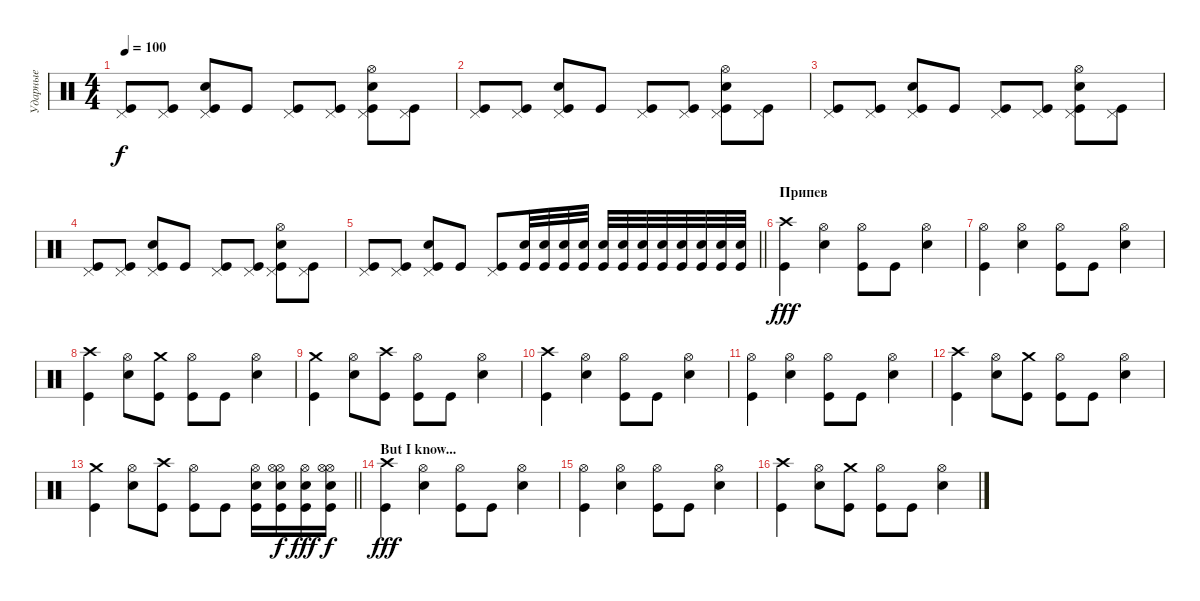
\track ("Ударные" "Ударные") {instrument percussion}
\staff {score}
\articulation defaults
\ts (4 4)
\tempo 100
\clef neutral
\ks c
("Kick (hit)" "Pedal Hi-Hat (hit)").8{dy f} ("Pedal Hi-Hat (hit)" "Kick (hit)").8 ("Snare (hit) 2" "Kick (hit)" "Pedal Hi-Hat (hit)").8 "Kick (hit)".8 ("Kick (hit)" "Pedal Hi-Hat (hit)").8 ("Pedal Hi-Hat (hit)" "Kick (hit)").8 ("Kick (hit)" "Pedal Hi-Hat (hit)" "Snare (hit) 2" "Hi-Hat (open)").8 ("Kick (hit)" "Pedal Hi-Hat (hit)").8 |
("Kick (hit)" "Pedal Hi-Hat (hit)").8 ("Pedal Hi-Hat (hit)" "Kick (hit)").8 ("Snare (hit) 2" "Kick (hit)" "Pedal Hi-Hat (hit)").8 "Kick (hit)".8 ("Kick (hit)" "Pedal Hi-Hat (hit)").8 ("Pedal Hi-Hat (hit)" "Kick (hit)").8 ("Kick (hit)" "Pedal Hi-Hat (hit)" "Snare (hit) 2" "Hi-Hat (open)").8 ("Kick (hit)" "Pedal Hi-Hat (hit)").8 |
("Kick (hit)" "Pedal Hi-Hat (hit)").8 ("Pedal Hi-Hat (hit)" "Kick (hit)").8 ("Snare (hit) 2" "Kick (hit)" "Pedal Hi-Hat (hit)").8 "Kick (hit)".8 ("Kick (hit)" "Pedal Hi-Hat (hit)").8 ("Pedal Hi-Hat (hit)" "Kick (hit)").8 ("Kick (hit)" "Pedal Hi-Hat (hit)" "Snare (hit) 2" "Hi-Hat (open)").8 ("Kick (hit)" "Pedal Hi-Hat (hit)").8 |
("Kick (hit)" "Pedal Hi-Hat (hit)").8 ("Pedal Hi-Hat (hit)" "Kick (hit)").8 ("Snare (hit) 2" "Kick (hit)" "Pedal Hi-Hat (hit)").8 "Kick (hit)".8 ("Kick (hit)" "Pedal Hi-Hat (hit)").8 ("Pedal Hi-Hat (hit)" "Kick (hit)").8 ("Kick (hit)" "Pedal Hi-Hat (hit)" "Snare (hit) 2" "Hi-Hat (open)").8 ("Kick (hit)" "Pedal Hi-Hat (hit)").8 |
\barLineRight lightlight
("Kick (hit)" "Pedal Hi-Hat (hit)").8 ("Pedal Hi-Hat (hit)" "Kick (hit)").8 ("Snare (hit) 2" "Kick (hit)" "Pedal Hi-Hat (hit)").8 "Kick (hit)".8 ("Kick (hit)" "Pedal Hi-Hat (hit)").8 ("Snare (hit) 2" "Kick (hit)").32 ("Snare (hit) 2" "Kick (hit)").32 ("Kick (hit)" "Snare (hit) 2").32 ("Snare (hit) 2" "Kick (hit)").32 ("Kick (hit)" "Snare (hit) 2").32 ("Snare (hit) 2" "Kick (hit)").32 ("Kick (hit)" "Snare (hit) 2").32 ("Snare (hit) 2" "Kick (hit)").32 ("Kick (hit)" "Snare (hit) 2").32 ("Snare (hit) 2" "Kick (hit)").32 ("Kick (hit)" "Snare (hit) 2").32 ("Snare (hit) 2" "Kick (hit)").32 |
\section ("" "Припев")
("Crash high (hit)" "Kick (hit)").4{dy fff} ("Hi-Hat (open)" "Electric Snare (hit)").4 ("Hi-Hat (open)" "Kick (hit)").8 "Kick (hit)".8 ("Hi-Hat (open)" "Electric Snare (hit)").4 |
("Hi-Hat (open)" "Kick (hit)").4 ("Hi-Hat (open)" "Electric Snare (hit)").4 ("Hi-Hat (open)" "Kick (hit)").8 "Kick (hit)".8 ("Hi-Hat (open)" "Electric Snare (hit)").4 |
("Crash high (hit)" "Kick (hit)").4 ("Hi-Hat (open)" "Electric Snare (hit)").8 ("Crash medium (hit)" "Kick (hit)").8 ("Hi-Hat (open)" "Kick (hit)").8 "Kick (hit)".8 ("Hi-Hat (open)" "Electric Snare (hit)").4 |
("Crash medium (hit)" "Kick (hit)").4 ("Hi-Hat (open)" "Electric Snare (hit)").8 ("Crash high (hit)" "Kick (hit)").8 ("Hi-Hat (open)" "Kick (hit)").8 "Kick (hit)".8 ("Hi-Hat (open)" "Electric Snare (hit)").4 |
("Crash high (hit)" "Kick (hit)").4 ("Hi-Hat (open)" "Electric Snare (hit)").4 ("Hi-Hat (open)" "Kick (hit)").8 "Kick (hit)".8 ("Hi-Hat (open)" "Electric Snare (hit)").4 |
("Hi-Hat (open)" "Kick (hit)").4 ("Hi-Hat (open)" "Electric Snare (hit)").4 ("Hi-Hat (open)" "Kick (hit)").8 "Kick (hit)".8 ("Hi-Hat (open)" "Electric Snare (hit)").4 |
("Crash high (hit)" "Kick (hit)").4 ("Hi-Hat (open)" "Electric Snare (hit)").8 ("Crash medium (hit)" "Kick (hit)").8 ("Hi-Hat (open)" "Kick (hit)").8 "Kick (hit)".8 ("Hi-Hat (open)" "Electric Snare (hit)").4 |
\barLineRight lightlight
("Crash medium (hit)" "Kick (hit)").4 ("Hi-Hat (open)" "Electric Snare (hit)").8 ("Crash high (hit)" "Kick (hit)").8 ("Hi-Hat (open)" "Kick (hit)").8 "Kick (hit)".8 ("Kick (hit)" "Hi-Hat (open)" "Electric Snare (hit)").16 ("Snare (hit) 2" "Kick (hit)" "Hi-Hat (open)" "Hi-Hat (open)").16{dy f} ("Kick (hit)" "Hi-Hat (open)" "Electric Snare (hit)").16{dy fff} ("Snare (hit) 2" "Kick (hit)" "Hi-Hat (open)" "Hi-Hat (open)").16{dy f} |
\section ("" "But I know...")
("Crash high (hit)" "Kick (hit)").4{dy fff} ("Hi-Hat (open)" "Electric Snare (hit)").4 ("Hi-Hat (open)" "Kick (hit)").8 "Kick (hit)".8 ("Hi-Hat (open)" "Electric Snare (hit)").4 |
("Hi-Hat (open)" "Kick (hit)").4 ("Hi-Hat (open)" "Electric Snare (hit)").4 ("Hi-Hat (open)" "Kick (hit)").8 "Kick (hit)".8 ("Hi-Hat (open)" "Electric Snare (hit)").4 |
("Crash high (hit)" "Kick (hit)").4 ("Hi-Hat (open)" "Electric Snare (hit)").8 ("Crash medium (hit)" "Kick (hit)").8 ("Hi-Hat (open)" "Kick (hit)").8 "Kick (hit)".8 ("Hi-Hat (open)" "Electric Snare (hit)").4
